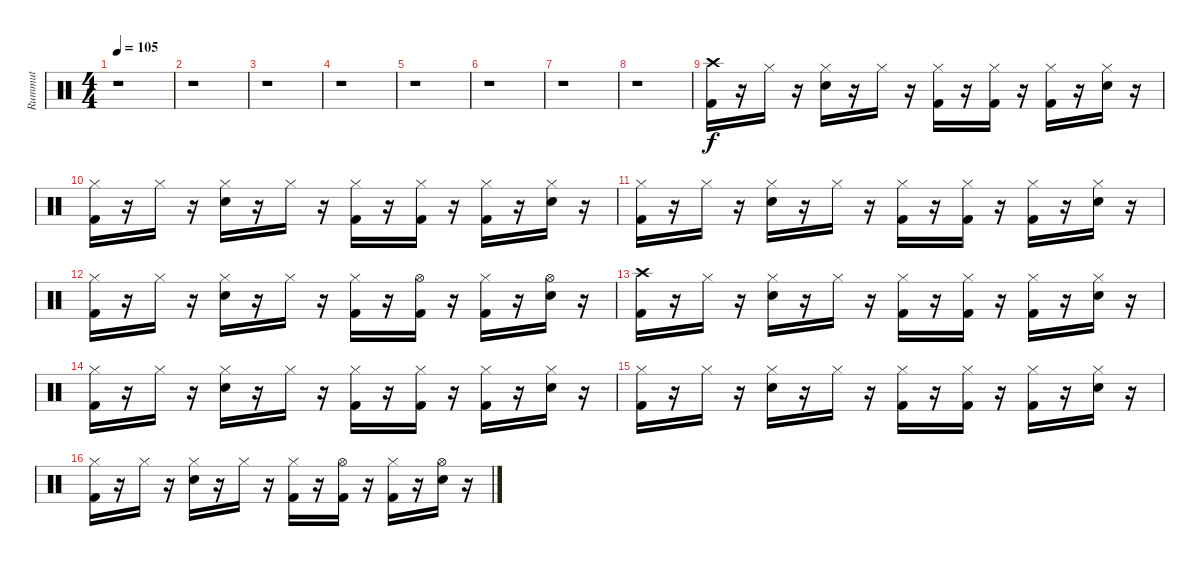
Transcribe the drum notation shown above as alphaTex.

\track ("Rummut" "Rummut") {instrument percussion}
\staff {score}
\articulation defaults
\ts (4 4)
\tempo 105
\clef neutral
\ks c
r.1{dy f} |
r.1 |
r.1 |
r.1 |
r.1 |
r.1 |
r.1 |
r.1 |
("Crash high (hit)" "Kick (hit) 2").16 r.16 "Hi-Hat (closed)".16 r.16 ("Hi-Hat (closed)" "Snare (hit) 2").16 r.16 "Hi-Hat (closed)".16 r.16 ("Hi-Hat (closed)" "Kick (hit) 2").16 r.16 ("Hi-Hat (closed)" "Kick (hit) 2").16 r.16 ("Hi-Hat (closed)" "Kick (hit) 2").16 r.16 ("Hi-Hat (closed)" "Snare (hit) 2").16 r.16 |
("Hi-Hat (closed)" "Kick (hit) 2").16 r.16 "Hi-Hat (closed)".16 r.16 ("Hi-Hat (closed)" "Snare (hit) 2").16 r.16 "Hi-Hat (closed)".16 r.16 ("Hi-Hat (closed)" "Kick (hit) 2").16 r.16 ("Hi-Hat (closed)" "Kick (hit) 2").16 r.16 ("Hi-Hat (closed)" "Kick (hit) 2").16 r.16 ("Hi-Hat (closed)" "Snare (hit) 2").16 r.16 |
("Hi-Hat (closed)" "Kick (hit) 2").16 r.16 "Hi-Hat (closed)".16 r.16 ("Hi-Hat (closed)" "Snare (hit) 2").16 r.16 "Hi-Hat (closed)".16 r.16 ("Hi-Hat (closed)" "Kick (hit) 2").16 r.16 ("Hi-Hat (closed)" "Kick (hit) 2").16 r.16 ("Hi-Hat (closed)" "Kick (hit) 2").16 r.16 ("Hi-Hat (closed)" "Snare (hit) 2").16 r.16 |
("Hi-Hat (closed)" "Kick (hit) 2").16 r.16 "Hi-Hat (closed)".16 r.16 ("Hi-Hat (closed)" "Snare (hit) 2").16 r.16 "Hi-Hat (closed)".16 r.16 ("Hi-Hat (closed)" "Kick (hit) 2").16 r.16 ("Hi-Hat (open)" "Kick (hit) 2").16 r.16 ("Hi-Hat (closed)" "Kick (hit) 2").16 r.16 ("Hi-Hat (open)" "Snare (hit) 2").16 r.16 |
("Crash high (hit)" "Kick (hit) 2").16 r.16 "Hi-Hat (closed)".16 r.16 ("Hi-Hat (closed)" "Snare (hit) 2").16 r.16 "Hi-Hat (closed)".16 r.16 ("Hi-Hat (closed)" "Kick (hit) 2").16 r.16 ("Hi-Hat (closed)" "Kick (hit) 2").16 r.16 ("Hi-Hat (closed)" "Kick (hit) 2").16 r.16 ("Hi-Hat (closed)" "Snare (hit) 2").16 r.16 |
("Hi-Hat (closed)" "Kick (hit) 2").16 r.16 "Hi-Hat (closed)".16 r.16 ("Hi-Hat (closed)" "Snare (hit) 2").16 r.16 "Hi-Hat (closed)".16 r.16 ("Hi-Hat (closed)" "Kick (hit) 2").16 r.16 ("Hi-Hat (closed)" "Kick (hit) 2").16 r.16 ("Hi-Hat (closed)" "Kick (hit) 2").16 r.16 ("Hi-Hat (closed)" "Snare (hit) 2").16 r.16 |
("Hi-Hat (closed)" "Kick (hit) 2").16 r.16 "Hi-Hat (closed)".16 r.16 ("Hi-Hat (closed)" "Snare (hit) 2").16 r.16 "Hi-Hat (closed)".16 r.16 ("Hi-Hat (closed)" "Kick (hit) 2").16 r.16 ("Hi-Hat (closed)" "Kick (hit) 2").16 r.16 ("Hi-Hat (closed)" "Kick (hit) 2").16 r.16 ("Hi-Hat (closed)" "Snare (hit) 2").16 r.16 |
("Hi-Hat (closed)" "Kick (hit) 2").16 r.16 "Hi-Hat (closed)".16 r.16 ("Hi-Hat (closed)" "Snare (hit) 2").16 r.16 "Hi-Hat (closed)".16 r.16 ("Hi-Hat (closed)" "Kick (hit) 2").16 r.16 ("Hi-Hat (open)" "Kick (hit) 2").16 r.16 ("Hi-Hat (closed)" "Kick (hit) 2").16 r.16 ("Hi-Hat (open)" "Snare (hit) 2").16 r.16
